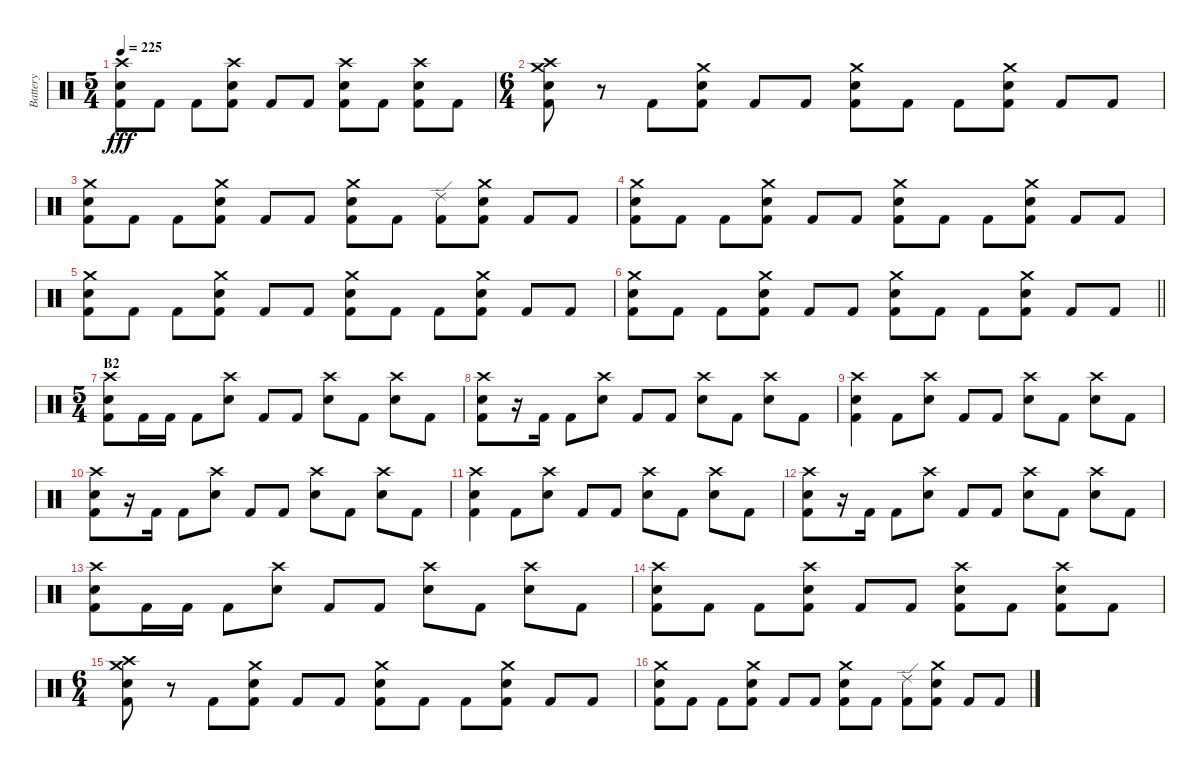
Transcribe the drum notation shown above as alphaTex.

\track ("Battery" "Battery") {instrument percussion}
\staff {score}
\articulation defaults
\ts (5 4)
\tempo 225
\clef neutral
\ks c
("Crash high (hit)" "Electric Snare (hit)" "Kick (hit) 2").8{dy fff} "Kick (hit) 2".8 "Kick (hit) 2".8 ("Crash high (hit)" "Electric Snare (hit)" "Kick (hit) 2").8 "Kick (hit) 2".8 "Kick (hit) 2".8 ("Crash high (hit)" "Electric Snare (hit)" "Kick (hit) 2").8 "Kick (hit) 2".8 ("Crash high (hit)" "Electric Snare (hit)" "Kick (hit) 2").8 "Kick (hit) 2".8 |
\ts (6 4)
("Crash high (hit)" "Crash medium (hit)" "Electric Snare (hit)" "Kick (hit) 2").8 r.8 "Kick (hit) 2".8 ("Crash medium (hit)" "Electric Snare (hit)" "Kick (hit) 2").8 "Kick (hit) 2".8 "Kick (hit) 2".8 ("Crash medium (hit)" "Electric Snare (hit)" "Kick (hit) 2").8 "Kick (hit) 2".8 "Kick (hit) 2".8 ("Crash medium (hit)" "Electric Snare (hit)" "Kick (hit) 2").8 "Kick (hit) 2".8 "Kick (hit) 2".8 |
("Crash medium (hit)" "Electric Snare (hit)" "Kick (hit) 2").8 "Kick (hit) 2".8 "Kick (hit) 2".8 ("Crash medium (hit)" "Electric Snare (hit)" "Kick (hit) 2").8 "Kick (hit) 2".8 "Kick (hit) 2".8 ("Crash medium (hit)" "Electric Snare (hit)" "Kick (hit) 2").8 "Kick (hit) 2".8 ("Ride (edge) 2" "Kick (hit) 2").8 ("Crash medium (hit)" "Electric Snare (hit)" "Kick (hit) 2").8 "Kick (hit) 2".8 "Kick (hit) 2".8 |
("Crash medium (hit)" "Electric Snare (hit)" "Kick (hit) 2").8 "Kick (hit) 2".8 "Kick (hit) 2".8 ("Crash medium (hit)" "Electric Snare (hit)" "Kick (hit) 2").8 "Kick (hit) 2".8 "Kick (hit) 2".8 ("Crash medium (hit)" "Electric Snare (hit)" "Kick (hit) 2").8 "Kick (hit) 2".8 "Kick (hit) 2".8 ("Crash medium (hit)" "Electric Snare (hit)" "Kick (hit) 2").8 "Kick (hit) 2".8 "Kick (hit) 2".8 |
("Crash medium (hit)" "Electric Snare (hit)" "Kick (hit) 2").8 "Kick (hit) 2".8 "Kick (hit) 2".8 ("Crash medium (hit)" "Electric Snare (hit)" "Kick (hit) 2").8 "Kick (hit) 2".8 "Kick (hit) 2".8 ("Crash medium (hit)" "Electric Snare (hit)" "Kick (hit) 2").8 "Kick (hit) 2".8 "Kick (hit) 2".8 ("Crash medium (hit)" "Electric Snare (hit)" "Kick (hit) 2").8 "Kick (hit) 2".8 "Kick (hit) 2".8 |
\barLineRight lightlight
("Crash medium (hit)" "Electric Snare (hit)" "Kick (hit) 2").8 "Kick (hit) 2".8 "Kick (hit) 2".8 ("Crash medium (hit)" "Electric Snare (hit)" "Kick (hit) 2").8 "Kick (hit) 2".8 "Kick (hit) 2".8 ("Crash medium (hit)" "Electric Snare (hit)" "Kick (hit) 2").8 "Kick (hit) 2".8 "Kick (hit) 2".8 ("Crash medium (hit)" "Electric Snare (hit)" "Kick (hit) 2").8 "Kick (hit) 2".8 "Kick (hit) 2".8 |
\ts (5 4)
\section ("" "B2")
("Crash high (hit)" "Electric Snare (hit)" "Kick (hit) 2").8 "Kick (hit) 2".16 "Kick (hit) 2".16 "Kick (hit) 2".8 ("Crash high (hit)" "Electric Snare (hit)").8 "Kick (hit) 2".8 "Kick (hit) 2".8 ("Crash high (hit)" "Electric Snare (hit)").8 "Kick (hit) 2".8 ("Crash high (hit)" "Electric Snare (hit)").8 "Kick (hit) 2".8 |
("Crash high (hit)" "Electric Snare (hit)" "Kick (hit) 2").8 r.16 "Kick (hit) 2".16 "Kick (hit) 2".8 ("Crash high (hit)" "Electric Snare (hit)").8 "Kick (hit) 2".8 "Kick (hit) 2".8 ("Crash high (hit)" "Electric Snare (hit)").8 "Kick (hit) 2".8 ("Crash high (hit)" "Electric Snare (hit)").8 "Kick (hit) 2".8 |
("Crash high (hit)" "Electric Snare (hit)" "Kick (hit) 2").4 "Kick (hit) 2".8 ("Crash high (hit)" "Electric Snare (hit)").8 "Kick (hit) 2".8 "Kick (hit) 2".8 ("Crash high (hit)" "Electric Snare (hit)").8 "Kick (hit) 2".8 ("Crash high (hit)" "Electric Snare (hit)").8 "Kick (hit) 2".8 |
("Crash high (hit)" "Electric Snare (hit)" "Kick (hit) 2").8 r.16 "Kick (hit) 2".16 "Kick (hit) 2".8 ("Crash high (hit)" "Electric Snare (hit)").8 "Kick (hit) 2".8 "Kick (hit) 2".8 ("Crash high (hit)" "Electric Snare (hit)").8 "Kick (hit) 2".8 ("Crash high (hit)" "Electric Snare (hit)").8 "Kick (hit) 2".8 |
("Crash high (hit)" "Electric Snare (hit)" "Kick (hit) 2").4 "Kick (hit) 2".8 ("Crash high (hit)" "Electric Snare (hit)").8 "Kick (hit) 2".8 "Kick (hit) 2".8 ("Crash high (hit)" "Electric Snare (hit)").8 "Kick (hit) 2".8 ("Crash high (hit)" "Electric Snare (hit)").8 "Kick (hit) 2".8 |
("Crash high (hit)" "Electric Snare (hit)" "Kick (hit) 2").8 r.16 "Kick (hit) 2".16 "Kick (hit) 2".8 ("Crash high (hit)" "Electric Snare (hit)").8 "Kick (hit) 2".8 "Kick (hit) 2".8 ("Crash high (hit)" "Electric Snare (hit)").8 "Kick (hit) 2".8 ("Crash high (hit)" "Electric Snare (hit)").8 "Kick (hit) 2".8 |
("Crash high (hit)" "Electric Snare (hit)" "Kick (hit) 2").8 "Kick (hit) 2".16 "Kick (hit) 2".16 "Kick (hit) 2".8 ("Crash high (hit)" "Electric Snare (hit)").8 "Kick (hit) 2".8 "Kick (hit) 2".8 ("Crash high (hit)" "Electric Snare (hit)").8 "Kick (hit) 2".8 ("Crash high (hit)" "Electric Snare (hit)").8 "Kick (hit) 2".8 |
("Crash high (hit)" "Electric Snare (hit)" "Kick (hit) 2").8 "Kick (hit) 2".8 "Kick (hit) 2".8 ("Crash high (hit)" "Electric Snare (hit)" "Kick (hit) 2").8 "Kick (hit) 2".8 "Kick (hit) 2".8 ("Crash high (hit)" "Electric Snare (hit)" "Kick (hit) 2").8 "Kick (hit) 2".8 ("Crash high (hit)" "Electric Snare (hit)" "Kick (hit) 2").8 "Kick (hit) 2".8 |
\ts (6 4)
("Crash high (hit)" "Crash medium (hit)" "Electric Snare (hit)" "Kick (hit) 2").8 r.8 "Kick (hit) 2".8 ("Crash medium (hit)" "Electric Snare (hit)" "Kick (hit) 2").8 "Kick (hit) 2".8 "Kick (hit) 2".8 ("Crash medium (hit)" "Electric Snare (hit)" "Kick (hit) 2").8 "Kick (hit) 2".8 "Kick (hit) 2".8 ("Crash medium (hit)" "Electric Snare (hit)" "Kick (hit) 2").8 "Kick (hit) 2".8 "Kick (hit) 2".8 |
("Crash medium (hit)" "Electric Snare (hit)" "Kick (hit) 2").8 "Kick (hit) 2".8 "Kick (hit) 2".8 ("Crash medium (hit)" "Electric Snare (hit)" "Kick (hit) 2").8 "Kick (hit) 2".8 "Kick (hit) 2".8 ("Crash medium (hit)" "Electric Snare (hit)" "Kick (hit) 2").8 "Kick (hit) 2".8 ("Ride (edge) 2" "Kick (hit) 2").8 ("Crash medium (hit)" "Electric Snare (hit)" "Kick (hit) 2").8 "Kick (hit) 2".8 "Kick (hit) 2".8
